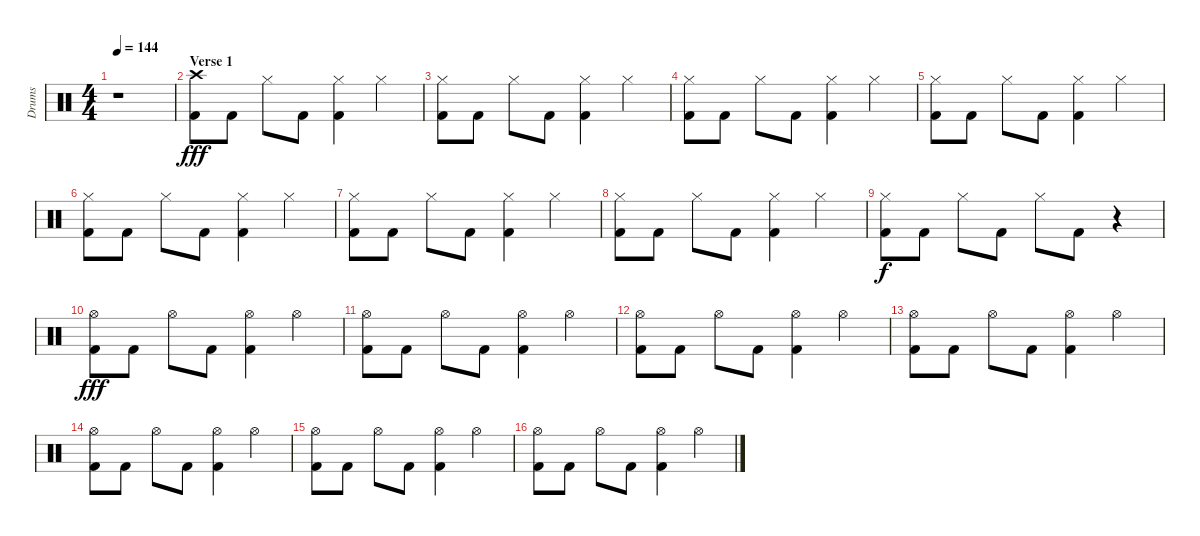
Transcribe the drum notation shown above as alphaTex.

\track ("Drums" "Drums") {instrument percussion}
\staff {score}
\articulation defaults
\ts (4 4)
\tempo 144
\clef neutral
\ks c
r.1{dy fff} |
\section ("" "Verse 1")
("Crash high (hit)" "Kick (hit) 2").8 "Kick (hit) 2".8 "Hi-Hat (closed)".8 "Kick (hit) 2".8 ("Hi-Hat (closed)" "Kick (hit) 2").4 "Hi-Hat (closed)".4 |
("Hi-Hat (closed)" "Kick (hit) 2").8 "Kick (hit) 2".8 "Hi-Hat (closed)".8 "Kick (hit) 2".8 ("Hi-Hat (closed)" "Kick (hit) 2").4 "Hi-Hat (closed)".4 |
("Hi-Hat (closed)" "Kick (hit) 2").8 "Kick (hit) 2".8 "Hi-Hat (closed)".8 "Kick (hit) 2".8 ("Hi-Hat (closed)" "Kick (hit) 2").4 "Hi-Hat (closed)".4 |
("Hi-Hat (closed)" "Kick (hit) 2").8 "Kick (hit) 2".8 "Hi-Hat (closed)".8 "Kick (hit) 2".8 ("Hi-Hat (closed)" "Kick (hit) 2").4 "Hi-Hat (closed)".4 |
("Hi-Hat (closed)" "Kick (hit) 2").8 "Kick (hit) 2".8 "Hi-Hat (closed)".8 "Kick (hit) 2".8 ("Hi-Hat (closed)" "Kick (hit) 2").4 "Hi-Hat (closed)".4 |
("Hi-Hat (closed)" "Kick (hit) 2").8 "Kick (hit) 2".8 "Hi-Hat (closed)".8 "Kick (hit) 2".8 ("Hi-Hat (closed)" "Kick (hit) 2").4 "Hi-Hat (closed)".4 |
("Hi-Hat (closed)" "Kick (hit) 2").8 "Kick (hit) 2".8 "Hi-Hat (closed)".8 "Kick (hit) 2".8 ("Hi-Hat (closed)" "Kick (hit) 2").4 "Hi-Hat (closed)".4 |
("Hi-Hat (closed)" "Kick (hit) 2").8{dy f} "Kick (hit) 2".8 "Hi-Hat (closed)".8 "Kick (hit) 2".8 "Hi-Hat (closed)".8 "Kick (hit) 2".8 r.4 |
("Hi-Hat (open)" "Kick (hit) 2").8{dy fff} "Kick (hit) 2".8 "Hi-Hat (open)".8 "Kick (hit) 2".8 ("Hi-Hat (open)" "Kick (hit) 2").4 "Hi-Hat (open)".4 |
("Hi-Hat (open)" "Kick (hit) 2").8 "Kick (hit) 2".8 "Hi-Hat (open)".8 "Kick (hit) 2".8 ("Hi-Hat (open)" "Kick (hit) 2").4 "Hi-Hat (open)".4 |
("Hi-Hat (open)" "Kick (hit) 2").8 "Kick (hit) 2".8 "Hi-Hat (open)".8 "Kick (hit) 2".8 ("Hi-Hat (open)" "Kick (hit) 2").4 "Hi-Hat (open)".4 |
("Hi-Hat (open)" "Kick (hit) 2").8 "Kick (hit) 2".8 "Hi-Hat (open)".8 "Kick (hit) 2".8 ("Hi-Hat (open)" "Kick (hit) 2").4 "Hi-Hat (open)".4 |
("Hi-Hat (open)" "Kick (hit) 2").8 "Kick (hit) 2".8 "Hi-Hat (open)".8 "Kick (hit) 2".8 ("Hi-Hat (open)" "Kick (hit) 2").4 "Hi-Hat (open)".4 |
("Hi-Hat (open)" "Kick (hit) 2").8 "Kick (hit) 2".8 "Hi-Hat (open)".8 "Kick (hit) 2".8 ("Hi-Hat (open)" "Kick (hit) 2").4 "Hi-Hat (open)".4 |
("Hi-Hat (open)" "Kick (hit) 2").8 "Kick (hit) 2".8 "Hi-Hat (open)".8 "Kick (hit) 2".8 ("Hi-Hat (open)" "Kick (hit) 2").4 "Hi-Hat (open)".4
